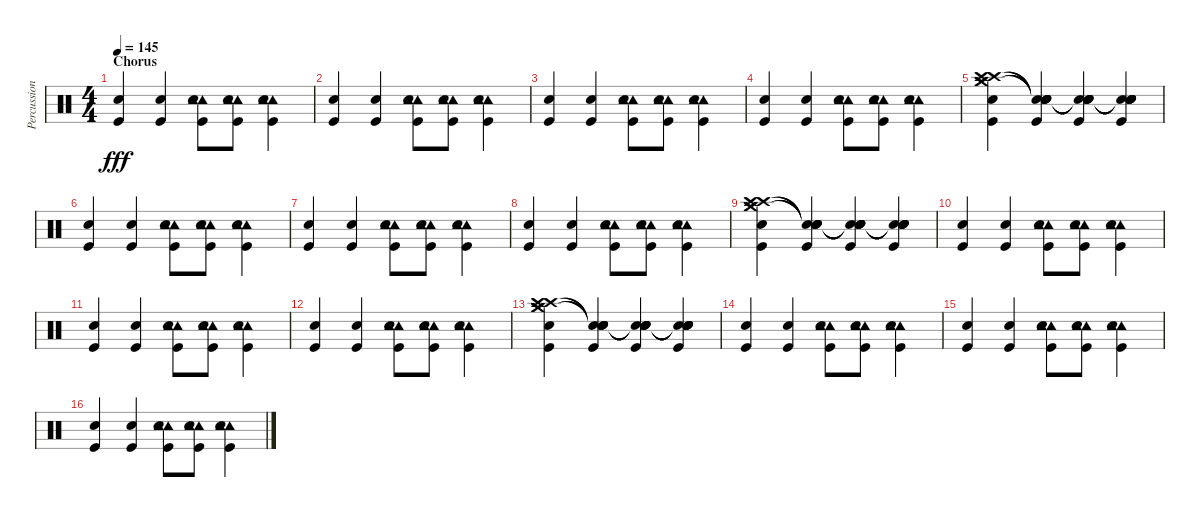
\track ("Percussion" "Percussion") {instrument percussion}
\staff {score}
\articulation defaults
\ts (4 4)
\section ("" "Chorus")
\tempo 145
\clef neutral
\ks c
("Snare (hit) 2" "Kick (hit)").4{dy fff} ("Snare (hit) 2" "Kick (hit)").4 ("Tambourine (hit)" "Tambourine (hit)" "Snare (hit) 2" "Kick (hit)").8 ("Tambourine (hit)" "Tambourine (hit)" "Snare (hit) 2" "Kick (hit)").8 ("Tambourine (hit)" "Tambourine (hit)" "Snare (hit) 2" "Kick (hit)").4 |
("Snare (hit) 2" "Kick (hit)").4 ("Snare (hit) 2" "Kick (hit)").4 ("Tambourine (hit)" "Tambourine (hit)" "Snare (hit) 2" "Kick (hit)").8 ("Tambourine (hit)" "Tambourine (hit)" "Snare (hit) 2" "Kick (hit)").8 ("Tambourine (hit)" "Tambourine (hit)" "Snare (hit) 2" "Kick (hit)").4 |
("Snare (hit) 2" "Kick (hit)").4 ("Snare (hit) 2" "Kick (hit)").4 ("Tambourine (hit)" "Tambourine (hit)" "Snare (hit) 2" "Kick (hit)").8 ("Tambourine (hit)" "Tambourine (hit)" "Snare (hit) 2" "Kick (hit)").8 ("Tambourine (hit)" "Tambourine (hit)" "Snare (hit) 2" "Kick (hit)").4 |
("Snare (hit) 2" "Kick (hit)").4 ("Snare (hit) 2" "Kick (hit)").4 ("Tambourine (hit)" "Tambourine (hit)" "Snare (hit) 2" "Kick (hit)").8 ("Tambourine (hit)" "Tambourine (hit)" "Snare (hit) 2" "Kick (hit)").8 ("Tambourine (hit)" "Tambourine (hit)" "Snare (hit) 2" "Kick (hit)").4 |
("Crash medium (hit)" "Crash high (hit)" "Snare (hit) 2" "Kick (hit)" "Crash high (hit)" "Crash medium (hit)").4 ("Snare (hit)"{t} "Snare (hit)"{t} "Snare (hit) 2" "Kick (hit)" "Snare (hit)"{t} "Snare (hit)"{t}).4 ("Snare (hit)"{t} "Snare (hit)"{t} "Snare (hit) 2" "Kick (hit)" "Snare (hit)"{t} "Snare (hit)"{t}).4 ("Snare (hit)"{t} "Snare (hit)"{t} "Snare (hit) 2" "Kick (hit)" "Snare (hit)"{t} "Snare (hit)"{t}).4 |
("Snare (hit) 2" "Kick (hit)").4 ("Snare (hit) 2" "Kick (hit)").4 ("Tambourine (hit)" "Tambourine (hit)" "Snare (hit) 2" "Kick (hit)").8 ("Tambourine (hit)" "Tambourine (hit)" "Snare (hit) 2" "Kick (hit)").8 ("Tambourine (hit)" "Tambourine (hit)" "Snare (hit) 2" "Kick (hit)").4 |
("Snare (hit) 2" "Kick (hit)").4 ("Snare (hit) 2" "Kick (hit)").4 ("Tambourine (hit)" "Tambourine (hit)" "Snare (hit) 2" "Kick (hit)").8 ("Tambourine (hit)" "Tambourine (hit)" "Snare (hit) 2" "Kick (hit)").8 ("Tambourine (hit)" "Tambourine (hit)" "Snare (hit) 2" "Kick (hit)").4 |
("Snare (hit) 2" "Kick (hit)").4 ("Snare (hit) 2" "Kick (hit)").4 ("Tambourine (hit)" "Tambourine (hit)" "Snare (hit) 2" "Kick (hit)").8 ("Tambourine (hit)" "Tambourine (hit)" "Snare (hit) 2" "Kick (hit)").8 ("Tambourine (hit)" "Tambourine (hit)" "Snare (hit) 2" "Kick (hit)").4 |
("Crash medium (hit)" "Crash high (hit)" "Snare (hit) 2" "Kick (hit)" "Crash high (hit)" "Crash medium (hit)").4 ("Snare (hit)"{t} "Snare (hit)"{t} "Snare (hit) 2" "Kick (hit)" "Snare (hit)"{t} "Snare (hit)"{t}).4 ("Snare (hit)"{t} "Snare (hit)"{t} "Snare (hit) 2" "Kick (hit)" "Snare (hit)"{t} "Snare (hit)"{t}).4 ("Snare (hit)"{t} "Snare (hit)"{t} "Snare (hit) 2" "Kick (hit)" "Snare (hit)"{t} "Snare (hit)"{t}).4 |
("Snare (hit) 2" "Kick (hit)").4 ("Snare (hit) 2" "Kick (hit)").4 ("Tambourine (hit)" "Tambourine (hit)" "Snare (hit) 2" "Kick (hit)").8 ("Tambourine (hit)" "Tambourine (hit)" "Snare (hit) 2" "Kick (hit)").8 ("Tambourine (hit)" "Tambourine (hit)" "Snare (hit) 2" "Kick (hit)").4 |
("Snare (hit) 2" "Kick (hit)").4 ("Snare (hit) 2" "Kick (hit)").4 ("Tambourine (hit)" "Tambourine (hit)" "Snare (hit) 2" "Kick (hit)").8 ("Tambourine (hit)" "Tambourine (hit)" "Snare (hit) 2" "Kick (hit)").8 ("Tambourine (hit)" "Tambourine (hit)" "Snare (hit) 2" "Kick (hit)").4 |
("Snare (hit) 2" "Kick (hit)").4 ("Snare (hit) 2" "Kick (hit)").4 ("Tambourine (hit)" "Tambourine (hit)" "Snare (hit) 2" "Kick (hit)").8 ("Tambourine (hit)" "Tambourine (hit)" "Snare (hit) 2" "Kick (hit)").8 ("Tambourine (hit)" "Tambourine (hit)" "Snare (hit) 2" "Kick (hit)").4 |
("Crash medium (hit)" "Crash high (hit)" "Snare (hit) 2" "Kick (hit)" "Crash high (hit)" "Crash medium (hit)").4 ("Snare (hit)"{t} "Snare (hit)"{t} "Snare (hit) 2" "Kick (hit)" "Snare (hit)"{t} "Snare (hit)"{t}).4 ("Snare (hit)"{t} "Snare (hit)"{t} "Snare (hit) 2" "Kick (hit)" "Snare (hit)"{t} "Snare (hit)"{t}).4 ("Snare (hit)"{t} "Snare (hit)"{t} "Snare (hit) 2" "Kick (hit)" "Snare (hit)"{t} "Snare (hit)"{t}).4 |
("Snare (hit) 2" "Kick (hit)").4 ("Snare (hit) 2" "Kick (hit)").4 ("Tambourine (hit)" "Tambourine (hit)" "Snare (hit) 2" "Kick (hit)").8 ("Tambourine (hit)" "Tambourine (hit)" "Snare (hit) 2" "Kick (hit)").8 ("Tambourine (hit)" "Tambourine (hit)" "Snare (hit) 2" "Kick (hit)").4 |
("Snare (hit) 2" "Kick (hit)").4 ("Snare (hit) 2" "Kick (hit)").4 ("Tambourine (hit)" "Tambourine (hit)" "Snare (hit) 2" "Kick (hit)").8 ("Tambourine (hit)" "Tambourine (hit)" "Snare (hit) 2" "Kick (hit)").8 ("Tambourine (hit)" "Tambourine (hit)" "Snare (hit) 2" "Kick (hit)").4 |
("Snare (hit) 2" "Kick (hit)").4 ("Snare (hit) 2" "Kick (hit)").4 ("Tambourine (hit)" "Tambourine (hit)" "Snare (hit) 2" "Kick (hit)").8 ("Tambourine (hit)" "Tambourine (hit)" "Snare (hit) 2" "Kick (hit)").8 ("Tambourine (hit)" "Tambourine (hit)" "Snare (hit) 2" "Kick (hit)").4
